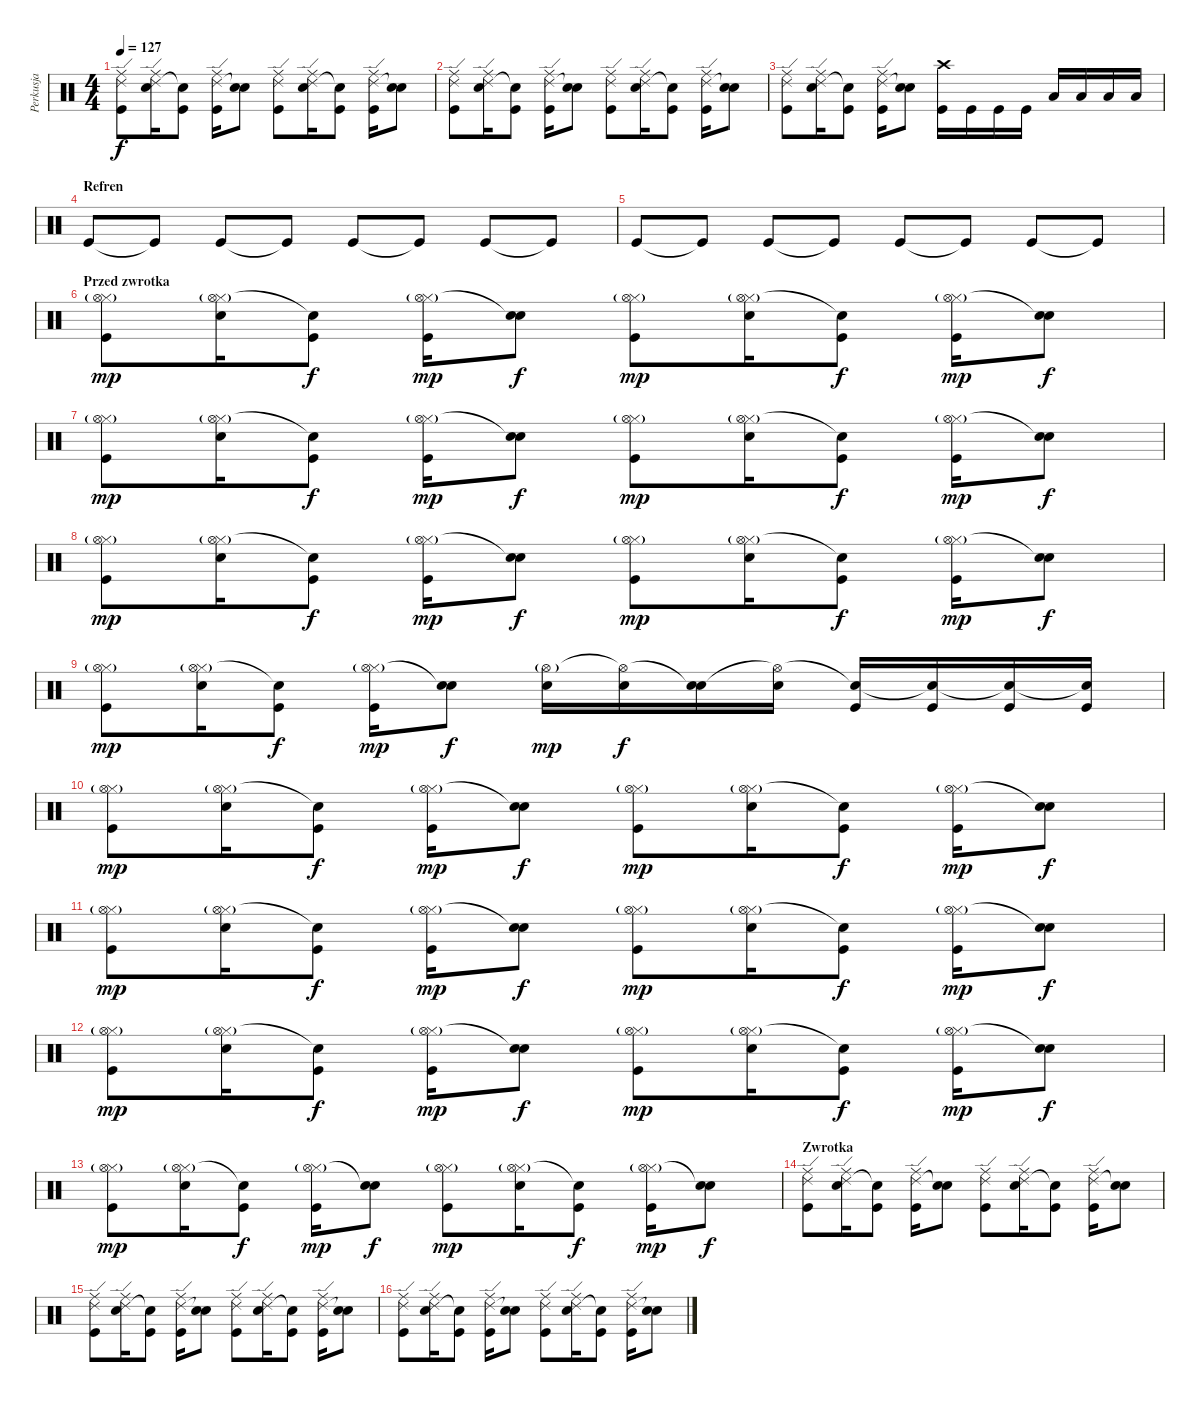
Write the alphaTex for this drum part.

\track ("Perkusja" "Perkusja") {instrument percussion}
\staff {score}
\articulation defaults
\ts (4 4)
\tempo 127
\clef neutral
\ks c
("Kick (hit)" "Ride (edge) 2" "Ride (middle)").8{dy f} ("Snare (hit) 2" "Ride (edge) 2" "Ride (middle)").16 ("Kick (hit)" "Snare (hit)"{t}).8 ("Kick (hit)" "Ride (edge) 2" "Ride (middle)").16 ("Snare (hit) 2" "Snare (hit)"{t}).8 ("Kick (hit)" "Ride (edge) 2" "Ride (middle)").8 ("Snare (hit) 2" "Ride (edge) 2" "Ride (middle)").16 ("Kick (hit)" "Snare (hit)"{t}).8 ("Kick (hit)" "Ride (edge) 2" "Ride (middle)").16 ("Snare (hit) 2" "Snare (hit)"{t}).8 |
("Kick (hit)" "Ride (edge) 2" "Ride (middle)").8 ("Snare (hit) 2" "Ride (edge) 2" "Ride (middle)").16 ("Kick (hit)" "Snare (hit)"{t}).8 ("Kick (hit)" "Ride (edge) 2" "Ride (middle)").16 ("Snare (hit) 2" "Snare (hit)"{t}).8 ("Kick (hit)" "Ride (edge) 2" "Ride (middle)").8 ("Snare (hit) 2" "Ride (edge) 2" "Ride (middle)").16 ("Kick (hit)" "Snare (hit)"{t}).8 ("Kick (hit)" "Ride (edge) 2" "Ride (middle)").16 ("Snare (hit) 2" "Snare (hit)"{t}).8 |
("Kick (hit)" "Ride (edge) 2" "Ride (middle)").8 ("Snare (hit) 2" "Ride (edge) 2" "Ride (middle)").16 ("Kick (hit)" "Snare (hit)"{t}).8 ("Kick (hit)" "Ride (edge) 2" "Ride (middle)").16 ("Snare (hit) 2" "Snare (hit)"{t}).8 ("Kick (hit)" "Crash high (hit)").16 "Kick (hit)".16 "Kick (hit)".16 "Kick (hit)".16 "Low Tom (hit)".16 "Low Tom (hit)".16 "Low Tom (hit)".16 "Low Tom (hit)".16 |
\section ("" "Refren")
"Kick (hit)".8 "Kick (hit)"{t}.8 "Kick (hit)".8 "Kick (hit)"{t}.8 "Kick (hit)".8 "Kick (hit)"{t}.8 "Kick (hit)".8 "Kick (hit)"{t}.8 |
"Kick (hit)".8 "Kick (hit)"{t}.8 "Kick (hit)".8 "Kick (hit)"{t}.8 "Kick (hit)".8 "Kick (hit)"{t}.8 "Kick (hit)".8 "Kick (hit)"{t}.8 |
\section ("" "Przed zwrotka")
("Kick (hit)" "Hi-Hat (closed)" "Hi-Hat (open)"{g}).8{dy mp} ("Snare (hit) 2" "Hi-Hat (closed)" "Hi-Hat (open)"{g}).16 ("Kick (hit)" "Snare (hit)"{t}).8{dy f} ("Kick (hit)" "Hi-Hat (closed)" "Hi-Hat (open)"{g}).16{dy mp} ("Snare (hit) 2" "Snare (hit)"{t}).8{dy f} ("Kick (hit)" "Hi-Hat (closed)" "Hi-Hat (open)"{g}).8{dy mp} ("Snare (hit) 2" "Hi-Hat (closed)" "Hi-Hat (open)"{g}).16 ("Kick (hit)" "Snare (hit)"{t}).8{dy f} ("Kick (hit)" "Hi-Hat (closed)" "Hi-Hat (open)"{g}).16{dy mp} ("Snare (hit) 2" "Snare (hit)"{t}).8{dy f} |
("Kick (hit)" "Hi-Hat (closed)" "Hi-Hat (open)"{g}).8{dy mp} ("Snare (hit) 2" "Hi-Hat (closed)" "Hi-Hat (open)"{g}).16 ("Kick (hit)" "Snare (hit)"{t}).8{dy f} ("Kick (hit)" "Hi-Hat (closed)" "Hi-Hat (open)"{g}).16{dy mp} ("Snare (hit) 2" "Snare (hit)"{t}).8{dy f} ("Kick (hit)" "Hi-Hat (closed)" "Hi-Hat (open)"{g}).8{dy mp} ("Snare (hit) 2" "Hi-Hat (closed)" "Hi-Hat (open)"{g}).16 ("Kick (hit)" "Snare (hit)"{t}).8{dy f} ("Kick (hit)" "Hi-Hat (closed)" "Hi-Hat (open)"{g}).16{dy mp} ("Snare (hit) 2" "Snare (hit)"{t}).8{dy f} |
("Kick (hit)" "Hi-Hat (closed)" "Hi-Hat (open)"{g}).8{dy mp} ("Snare (hit) 2" "Hi-Hat (closed)" "Hi-Hat (open)"{g}).16 ("Kick (hit)" "Snare (hit)"{t}).8{dy f} ("Kick (hit)" "Hi-Hat (closed)" "Hi-Hat (open)"{g}).16{dy mp} ("Snare (hit) 2" "Snare (hit)"{t}).8{dy f} ("Kick (hit)" "Hi-Hat (closed)" "Hi-Hat (open)"{g}).8{dy mp} ("Snare (hit) 2" "Hi-Hat (closed)" "Hi-Hat (open)"{g}).16 ("Kick (hit)" "Snare (hit)"{t}).8{dy f} ("Kick (hit)" "Hi-Hat (closed)" "Hi-Hat (open)"{g}).16{dy mp} ("Snare (hit) 2" "Snare (hit)"{t}).8{dy f} |
("Kick (hit)" "Hi-Hat (closed)" "Hi-Hat (open)"{g}).8{dy mp} ("Snare (hit) 2" "Hi-Hat (closed)" "Hi-Hat (open)"{g}).16 ("Kick (hit)" "Snare (hit)"{t}).8{dy f} ("Kick (hit)" "Hi-Hat (closed)" "Hi-Hat (open)"{g}).16{dy mp} ("Snare (hit) 2" "Snare (hit)"{t}).8{dy f} ("Snare (hit) 2" "Hi-Hat (open)"{g}).16{dy mp} ("Snare (hit) 2" "Hi-Hat (open)"{t}).16{dy f} ("Snare (hit) 2" "Snare (hit)"{t}).16 ("Snare (hit) 2" "Hi-Hat (open)"{t}).16 ("Kick (hit)" "Snare (hit)"{t}).16 ("Kick (hit)" "Snare (hit)"{t}).16 ("Kick (hit)" "Snare (hit)"{t}).16 ("Kick (hit)" "Snare (hit)"{t}).16 |
("Kick (hit)" "Hi-Hat (closed)" "Hi-Hat (open)"{g}).8{dy mp} ("Snare (hit) 2" "Hi-Hat (closed)" "Hi-Hat (open)"{g}).16 ("Kick (hit)" "Snare (hit)"{t}).8{dy f} ("Kick (hit)" "Hi-Hat (closed)" "Hi-Hat (open)"{g}).16{dy mp} ("Snare (hit) 2" "Snare (hit)"{t}).8{dy f} ("Kick (hit)" "Hi-Hat (closed)" "Hi-Hat (open)"{g}).8{dy mp} ("Snare (hit) 2" "Hi-Hat (closed)" "Hi-Hat (open)"{g}).16 ("Kick (hit)" "Snare (hit)"{t}).8{dy f} ("Kick (hit)" "Hi-Hat (closed)" "Hi-Hat (open)"{g}).16{dy mp} ("Snare (hit) 2" "Snare (hit)"{t}).8{dy f} |
("Kick (hit)" "Hi-Hat (closed)" "Hi-Hat (open)"{g}).8{dy mp} ("Snare (hit) 2" "Hi-Hat (closed)" "Hi-Hat (open)"{g}).16 ("Kick (hit)" "Snare (hit)"{t}).8{dy f} ("Kick (hit)" "Hi-Hat (closed)" "Hi-Hat (open)"{g}).16{dy mp} ("Snare (hit) 2" "Snare (hit)"{t}).8{dy f} ("Kick (hit)" "Hi-Hat (closed)" "Hi-Hat (open)"{g}).8{dy mp} ("Snare (hit) 2" "Hi-Hat (closed)" "Hi-Hat (open)"{g}).16 ("Kick (hit)" "Snare (hit)"{t}).8{dy f} ("Kick (hit)" "Hi-Hat (closed)" "Hi-Hat (open)"{g}).16{dy mp} ("Snare (hit) 2" "Snare (hit)"{t}).8{dy f} |
("Kick (hit)" "Hi-Hat (closed)" "Hi-Hat (open)"{g}).8{dy mp} ("Snare (hit) 2" "Hi-Hat (closed)" "Hi-Hat (open)"{g}).16 ("Kick (hit)" "Snare (hit)"{t}).8{dy f} ("Kick (hit)" "Hi-Hat (closed)" "Hi-Hat (open)"{g}).16{dy mp} ("Snare (hit) 2" "Snare (hit)"{t}).8{dy f} ("Kick (hit)" "Hi-Hat (closed)" "Hi-Hat (open)"{g}).8{dy mp} ("Snare (hit) 2" "Hi-Hat (closed)" "Hi-Hat (open)"{g}).16 ("Kick (hit)" "Snare (hit)"{t}).8{dy f} ("Kick (hit)" "Hi-Hat (closed)" "Hi-Hat (open)"{g}).16{dy mp} ("Snare (hit) 2" "Snare (hit)"{t}).8{dy f} |
("Kick (hit)" "Hi-Hat (closed)" "Hi-Hat (open)"{g}).8{dy mp} ("Snare (hit) 2" "Hi-Hat (closed)" "Hi-Hat (open)"{g}).16 ("Kick (hit)" "Snare (hit)"{t}).8{dy f} ("Kick (hit)" "Hi-Hat (closed)" "Hi-Hat (open)"{g}).16{dy mp} ("Snare (hit) 2" "Snare (hit)"{t}).8{dy f} ("Kick (hit)" "Hi-Hat (closed)" "Hi-Hat (open)"{g}).8{dy mp} ("Snare (hit) 2" "Hi-Hat (closed)" "Hi-Hat (open)"{g}).16 ("Kick (hit)" "Snare (hit)"{t}).8{dy f} ("Kick (hit)" "Hi-Hat (closed)" "Hi-Hat (open)"{g}).16{dy mp} ("Snare (hit) 2" "Snare (hit)"{t}).8{dy f} |
\section ("" "Zwrotka")
("Kick (hit)" "Ride (edge) 2" "Ride (middle)").8 ("Snare (hit) 2" "Ride (edge) 2" "Ride (middle)").16 ("Kick (hit)" "Snare (hit)"{t}).8 ("Kick (hit)" "Ride (edge) 2" "Ride (middle)").16 ("Snare (hit) 2" "Snare (hit)"{t}).8 ("Kick (hit)" "Ride (edge) 2" "Ride (middle)").8 ("Snare (hit) 2" "Ride (edge) 2" "Ride (middle)").16 ("Kick (hit)" "Snare (hit)"{t}).8 ("Kick (hit)" "Ride (edge) 2" "Ride (middle)").16 ("Snare (hit) 2" "Snare (hit)"{t}).8 |
("Kick (hit)" "Ride (edge) 2" "Ride (middle)").8 ("Snare (hit) 2" "Ride (edge) 2" "Ride (middle)").16 ("Kick (hit)" "Snare (hit)"{t}).8 ("Kick (hit)" "Ride (edge) 2" "Ride (middle)").16 ("Snare (hit) 2" "Snare (hit)"{t}).8 ("Kick (hit)" "Ride (edge) 2" "Ride (middle)").8 ("Snare (hit) 2" "Ride (edge) 2" "Ride (middle)").16 ("Kick (hit)" "Snare (hit)"{t}).8 ("Kick (hit)" "Ride (edge) 2" "Ride (middle)").16 ("Snare (hit) 2" "Snare (hit)"{t}).8 |
("Kick (hit)" "Ride (edge) 2" "Ride (middle)").8 ("Snare (hit) 2" "Ride (edge) 2" "Ride (middle)").16 ("Kick (hit)" "Snare (hit)"{t}).8 ("Kick (hit)" "Ride (edge) 2" "Ride (middle)").16 ("Snare (hit) 2" "Snare (hit)"{t}).8 ("Kick (hit)" "Ride (edge) 2" "Ride (middle)").8 ("Snare (hit) 2" "Ride (edge) 2" "Ride (middle)").16 ("Kick (hit)" "Snare (hit)"{t}).8 ("Kick (hit)" "Ride (edge) 2" "Ride (middle)").16 ("Snare (hit) 2" "Snare (hit)"{t}).8
